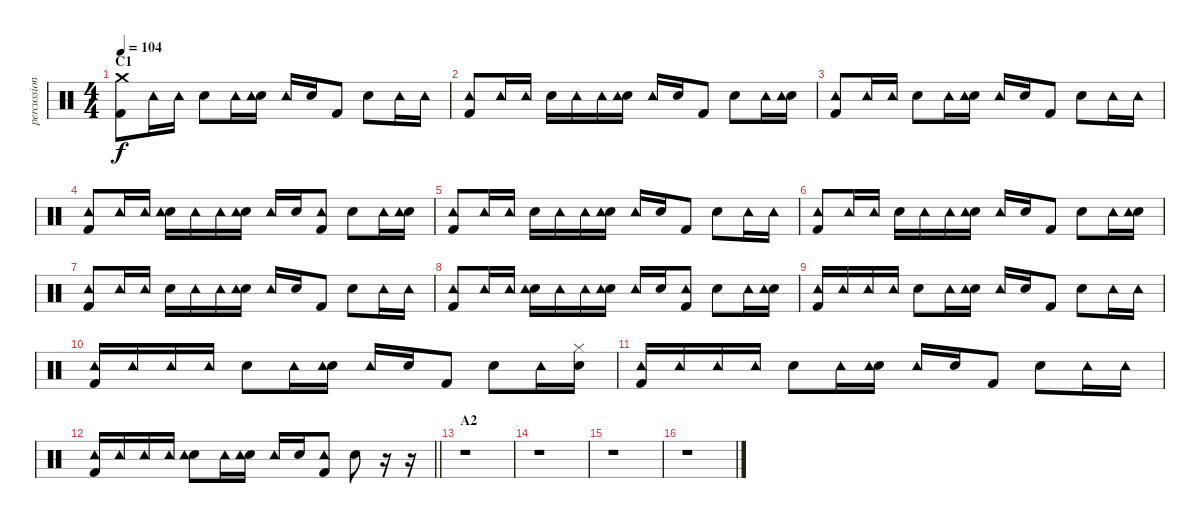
\track ("percussion" "percussion") {instrument percussion}
\staff {score}
\articulation defaults
\ts (4 4)
\section ("" "C1")
\tempo 104
\clef neutral
\ks c
("Crash medium (hit)" "Kick (hit) 2").8{dy f} "Tambourine (hit)".16 "Tambourine (hit)".16 "Snare (hit) 2".8 "Tambourine (hit)".16 ("Snare (hit) 2" "Tambourine (hit)").16 "Tambourine (hit)".16 "Snare (hit) 2".16 "Kick (hit) 2".8 "Snare (hit) 2".8 "Tambourine (hit)".16 "Tambourine (hit)".16 |
("Tambourine (hit)" "Kick (hit) 2").8 "Tambourine (hit)".16 "Tambourine (hit)".16 "Snare (hit) 2".16 "Tambourine (hit)".16 "Tambourine (hit)".16 ("Snare (hit) 2" "Tambourine (hit)").16 "Tambourine (hit)".16 "Snare (hit) 2".16 "Kick (hit) 2".8 "Snare (hit) 2".8 "Tambourine (hit)".16 ("Snare (hit) 2" "Tambourine (hit)").16 |
("Tambourine (hit)" "Kick (hit) 2").8 "Tambourine (hit)".16 "Tambourine (hit)".16 "Snare (hit) 2".8 "Tambourine (hit)".16 ("Snare (hit) 2" "Tambourine (hit)").16 "Tambourine (hit)".16 "Snare (hit) 2".16 "Kick (hit) 2".8 "Snare (hit) 2".8 "Tambourine (hit)".16 "Tambourine (hit)".16 |
("Tambourine (hit)" "Kick (hit) 2").8 "Tambourine (hit)".16 "Tambourine (hit)".16 ("Snare (hit) 2" "Tambourine (hit)").16 "Tambourine (hit)".16 "Tambourine (hit)".16 ("Snare (hit) 2" "Tambourine (hit)").16 "Tambourine (hit)".16 "Snare (hit) 2".16 ("Tambourine (hit)" "Kick (hit) 2").8 "Snare (hit) 2".8 "Tambourine (hit)".16 ("Snare (hit) 2" "Tambourine (hit)").16 |
("Tambourine (hit)" "Kick (hit) 2").8 "Tambourine (hit)".16 "Tambourine (hit)".16 "Snare (hit) 2".16 "Tambourine (hit)".16 "Tambourine (hit)".16 ("Snare (hit) 2" "Tambourine (hit)").16 "Tambourine (hit)".16 "Snare (hit) 2".16 "Kick (hit) 2".8 "Snare (hit) 2".8 "Tambourine (hit)".16 "Tambourine (hit)".16 |
("Tambourine (hit)" "Kick (hit) 2").8 "Tambourine (hit)".16 "Tambourine (hit)".16 "Snare (hit) 2".16 "Tambourine (hit)".16 "Tambourine (hit)".16 ("Snare (hit) 2" "Tambourine (hit)").16 "Tambourine (hit)".16 "Snare (hit) 2".16 "Kick (hit) 2".8 "Snare (hit) 2".8 "Tambourine (hit)".16 ("Snare (hit) 2" "Tambourine (hit)").16 |
("Tambourine (hit)" "Kick (hit) 2").8 "Tambourine (hit)".16 "Tambourine (hit)".16 "Snare (hit) 2".16 "Tambourine (hit)".16 "Tambourine (hit)".16 ("Snare (hit) 2" "Tambourine (hit)").16 "Tambourine (hit)".16 "Snare (hit) 2".16 "Kick (hit) 2".8 "Snare (hit) 2".8 "Tambourine (hit)".16 "Tambourine (hit)".16 |
("Tambourine (hit)" "Kick (hit) 2").8 "Tambourine (hit)".16 "Tambourine (hit)".16 ("Snare (hit) 2" "Tambourine (hit)").16 "Tambourine (hit)".16 "Tambourine (hit)".16 ("Snare (hit) 2" "Tambourine (hit)").16 "Tambourine (hit)".16 "Snare (hit) 2".16 ("Tambourine (hit)" "Kick (hit) 2").8 "Snare (hit) 2".8 "Tambourine (hit)".16 ("Snare (hit) 2" "Tambourine (hit)").16 |
("Tambourine (hit)" "Kick (hit) 2").16 "Tambourine (hit)".16 "Tambourine (hit)".16 "Tambourine (hit)".16 "Snare (hit) 2".8 "Tambourine (hit)".16 ("Snare (hit) 2" "Tambourine (hit)").16 "Tambourine (hit)".16 "Snare (hit) 2".16 "Kick (hit) 2".8 "Snare (hit) 2".8 "Tambourine (hit)".16 "Tambourine (hit)".16 |
("Tambourine (hit)" "Kick (hit) 2").16 "Tambourine (hit)".16 "Tambourine (hit)".16 "Tambourine (hit)".16 "Snare (hit) 2".8 "Tambourine (hit)".16 ("Snare (hit) 2" "Tambourine (hit)").16 "Tambourine (hit)".16 "Snare (hit) 2".16 "Kick (hit) 2".8 "Snare (hit) 2".8 "Tambourine (hit)".16 ("Snare (hit) 2" "Hi-Hat (closed)").16 |
("Tambourine (hit)" "Kick (hit) 2").16 "Tambourine (hit)".16 "Tambourine (hit)".16 "Tambourine (hit)".16 "Snare (hit) 2".8 "Tambourine (hit)".16 ("Snare (hit) 2" "Tambourine (hit)").16 "Tambourine (hit)".16 "Snare (hit) 2".16 "Kick (hit) 2".8 "Snare (hit) 2".8 "Tambourine (hit)".16 "Tambourine (hit)".16 |
\barLineRight lightlight
("Tambourine (hit)" "Kick (hit) 2").16 "Tambourine (hit)".16 "Tambourine (hit)".16 "Tambourine (hit)".16 ("Snare (hit) 2" "Tambourine (hit)").8 "Tambourine (hit)".16 ("Snare (hit) 2" "Tambourine (hit)").16 "Tambourine (hit)".16 "Snare (hit) 2".16 ("Tambourine (hit)" "Kick (hit) 2").8 "Snare (hit) 2".8 r.16 r.16 |
\section ("" "A2")
r.1 |
r.1 |
r.1 |
r.1
